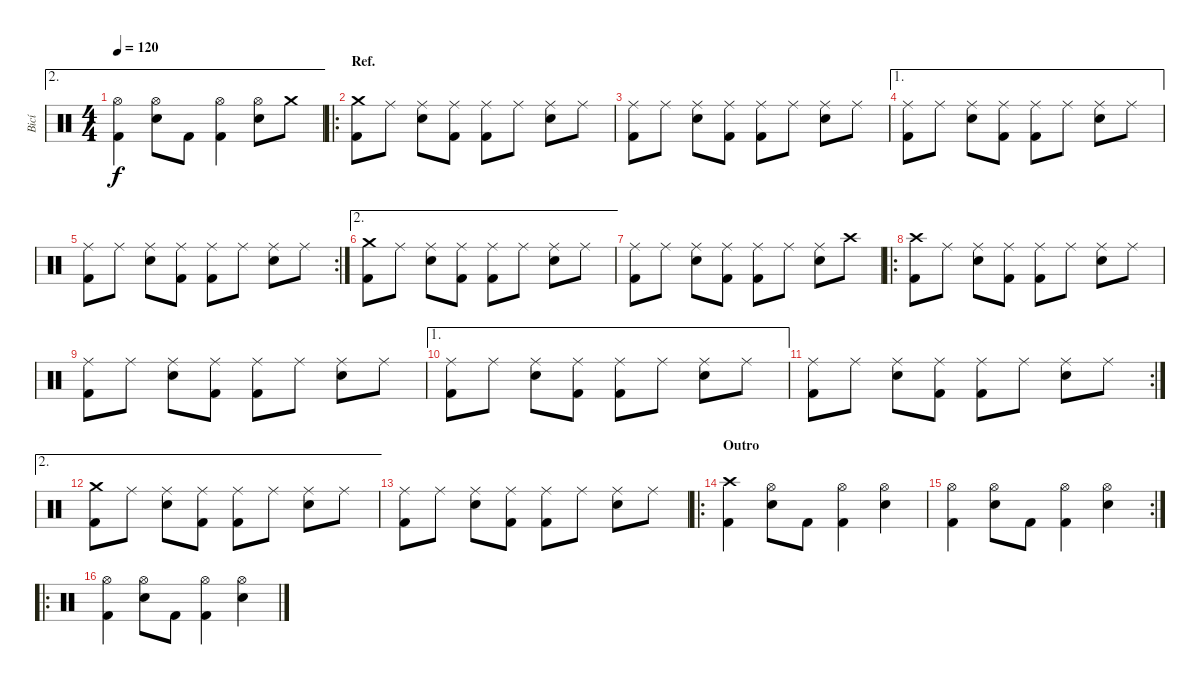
\track ("Bicí" "Bicí") {instrument percussion}
\staff {score}
\articulation defaults
\ae 2
\ts (4 4)
\tempo 120
\clef neutral
\ks c
("Hi-Hat (open)" "Kick (hit) 2").4{dy f} ("Hi-Hat (open)" "Snare (hit) 2").8 "Kick (hit) 2".8 ("Hi-Hat (open)" "Kick (hit) 2").4 ("Hi-Hat (open)" "Snare (hit) 2").8 "Crash medium (hit)".8{balance 0} |
\ro
\section ("" "Ref.")
("Crash medium (hit)" "Kick (hit) 2").8{balance 16} "Ride (middle)".8{balance 8} ("Ride (middle)" "Snare (hit) 2").8 ("Ride (middle)" "Kick (hit) 2").8 ("Ride (middle)" "Kick (hit) 2").8 "Ride (middle)".8 ("Ride (middle)" "Snare (hit) 2").8 "Ride (middle)".8 |
("Ride (middle)" "Kick (hit) 2").8 "Ride (middle)".8 ("Ride (middle)" "Snare (hit) 2").8 ("Ride (middle)" "Kick (hit) 2").8 ("Ride (middle)" "Kick (hit) 2").8 "Ride (middle)".8 ("Ride (middle)" "Snare (hit) 2").8 "Ride (middle)".8 |
\ae 1
("Ride (middle)" "Kick (hit) 2").8 "Ride (middle)".8 ("Ride (middle)" "Snare (hit) 2").8 ("Ride (middle)" "Kick (hit) 2").8 ("Ride (middle)" "Kick (hit) 2").8 "Ride (middle)".8 ("Ride (middle)" "Snare (hit) 2").8 "Ride (middle)".8 |
\rc 2
("Ride (middle)" "Kick (hit) 2").8 "Ride (middle)".8 ("Ride (middle)" "Snare (hit) 2").8 ("Ride (middle)" "Kick (hit) 2").8 ("Ride (middle)" "Kick (hit) 2").8 "Ride (middle)".8 ("Ride (middle)" "Snare (hit) 2").8 "Ride (middle)".8 |
\ae 2
("Crash medium (hit)" "Kick (hit) 2").8 "Ride (middle)".8 ("Ride (middle)" "Snare (hit) 2").8 ("Ride (middle)" "Kick (hit) 2").8 ("Ride (middle)" "Kick (hit) 2").8 "Ride (middle)".8 ("Ride (middle)" "Snare (hit) 2").8 "Ride (middle)".8 |
("Ride (middle)" "Kick (hit) 2").8 "Ride (middle)".8 ("Ride (middle)" "Snare (hit) 2").8 ("Ride (middle)" "Kick (hit) 2").8 ("Ride (middle)" "Kick (hit) 2").8 "Ride (middle)".8 ("Ride (middle)" "Snare (hit) 2").8 "Crash high (hit)".8{balance 0} |
\ro
("Crash high (hit)" "Kick (hit) 2").8{balance 16} "Ride (middle)".8{balance 8} ("Ride (middle)" "Snare (hit) 2").8 ("Ride (middle)" "Kick (hit) 2").8 ("Ride (middle)" "Kick (hit) 2").8 "Ride (middle)".8 ("Ride (middle)" "Snare (hit) 2").8 "Ride (middle)".8 |
("Ride (middle)" "Kick (hit) 2").8 "Ride (middle)".8 ("Ride (middle)" "Snare (hit) 2").8 ("Ride (middle)" "Kick (hit) 2").8 ("Ride (middle)" "Kick (hit) 2").8 "Ride (middle)".8 ("Ride (middle)" "Snare (hit) 2").8 "Ride (middle)".8 |
\ae 1
("Ride (middle)" "Kick (hit) 2").8 "Ride (middle)".8 ("Ride (middle)" "Snare (hit) 2").8 ("Ride (middle)" "Kick (hit) 2").8 ("Ride (middle)" "Kick (hit) 2").8 "Ride (middle)".8 ("Ride (middle)" "Snare (hit) 2").8 "Ride (middle)".8 |
\rc 2
("Ride (middle)" "Kick (hit) 2").8 "Ride (middle)".8 ("Ride (middle)" "Snare (hit) 2").8 ("Ride (middle)" "Kick (hit) 2").8 ("Ride (middle)" "Kick (hit) 2").8 "Ride (middle)".8 ("Ride (middle)" "Snare (hit) 2").8 "Ride (middle)".8 |
\ae 2
("Crash medium (hit)" "Kick (hit) 2").8 "Ride (middle)".8 ("Ride (middle)" "Snare (hit) 2").8 ("Ride (middle)" "Kick (hit) 2").8 ("Ride (middle)" "Kick (hit) 2").8 "Ride (middle)".8 ("Ride (middle)" "Snare (hit) 2").8 "Ride (middle)".8 |
("Ride (middle)" "Kick (hit) 2").8 "Ride (middle)".8 ("Ride (middle)" "Snare (hit) 2").8 ("Ride (middle)" "Kick (hit) 2").8 ("Ride (middle)" "Kick (hit) 2").8 "Ride (middle)".8 ("Ride (middle)" "Snare (hit) 2").8 "Ride (middle)".8 |
\ro
\section ("" "Outro")
("Crash high (hit)" "Kick (hit) 2").4 ("Hi-Hat (open)" "Snare (hit) 2").8 "Kick (hit) 2".8 ("Hi-Hat (open)" "Kick (hit) 2").4 ("Hi-Hat (open)" "Snare (hit) 2").4 |
\rc 2
("Hi-Hat (open)" "Kick (hit) 2").4 ("Hi-Hat (open)" "Snare (hit) 2").8 "Kick (hit) 2".8 ("Hi-Hat (open)" "Kick (hit) 2").4 ("Hi-Hat (open)" "Snare (hit) 2").4 |
\ro
("Hi-Hat (open)" "Kick (hit) 2").4 ("Hi-Hat (open)" "Snare (hit) 2").8 "Kick (hit) 2".8 ("Hi-Hat (open)" "Kick (hit) 2").4 ("Hi-Hat (open)" "Snare (hit) 2").4
